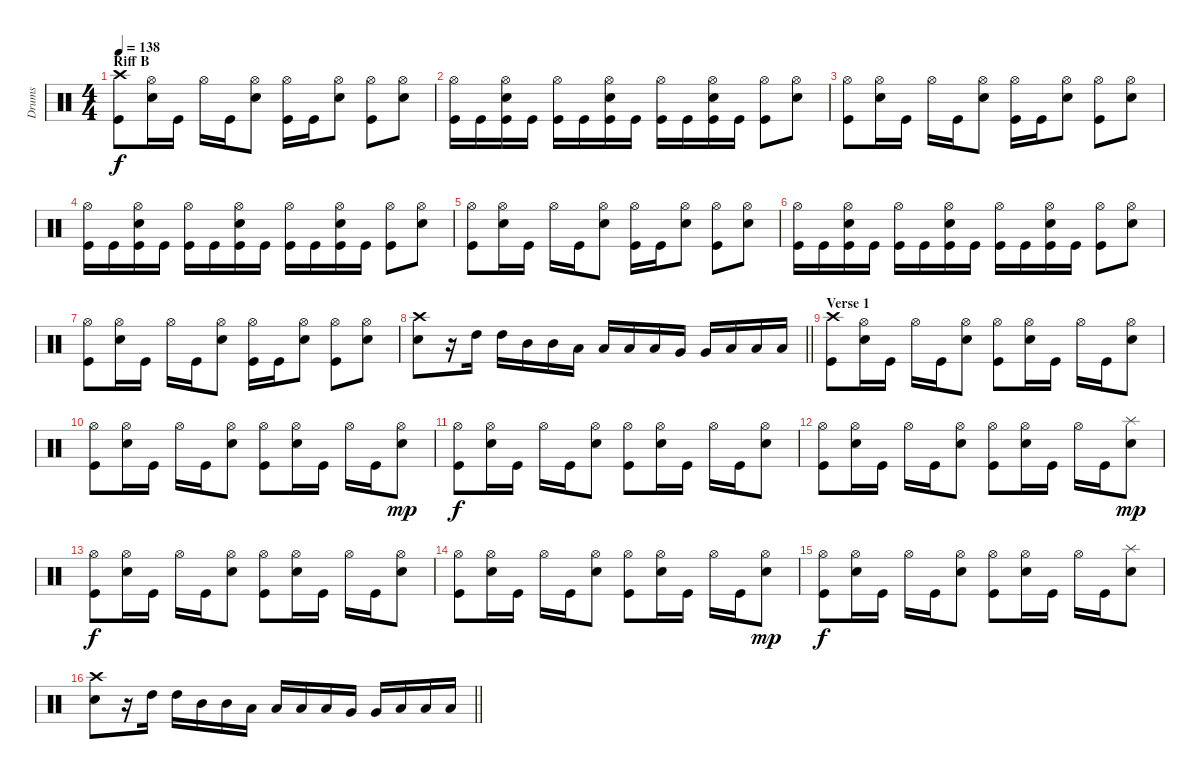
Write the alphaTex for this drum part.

\track ("Drums" "Drums") {instrument percussion}
\staff {score}
\articulation defaults
\ts (4 4)
\section ("" "Riff B")
\tempo 138
\clef neutral
\ks c
("Crash high (hit)" "Kick (hit)").8{dy f} ("Hi-Hat (open)" "Electric Snare (hit)").16 "Kick (hit)".16 "Hi-Hat (open)".16 "Kick (hit)".16 ("Hi-Hat (open)" "Electric Snare (hit)").8 ("Hi-Hat (open)" "Kick (hit)").16 "Kick (hit)".16 ("Hi-Hat (open)" "Electric Snare (hit)").8 ("Hi-Hat (open)" "Kick (hit)").8 ("Hi-Hat (open)" "Electric Snare (hit)").8 |
("Hi-Hat (open)" "Kick (hit)").16 "Kick (hit)".16 ("Hi-Hat (open)" "Electric Snare (hit)" "Kick (hit)").16 "Kick (hit)".16 ("Hi-Hat (open)" "Kick (hit)").16 "Kick (hit)".16 ("Hi-Hat (open)" "Electric Snare (hit)" "Kick (hit)").16 "Kick (hit)".16 ("Hi-Hat (open)" "Kick (hit)").16 "Kick (hit)".16 ("Hi-Hat (open)" "Electric Snare (hit)" "Kick (hit)").16 "Kick (hit)".16 ("Hi-Hat (open)" "Kick (hit)").8 ("Hi-Hat (open)" "Electric Snare (hit)").8 |
("Hi-Hat (open)" "Kick (hit)").8 ("Hi-Hat (open)" "Electric Snare (hit)").16 "Kick (hit)".16 "Hi-Hat (open)".16 "Kick (hit)".16 ("Hi-Hat (open)" "Electric Snare (hit)").8 ("Hi-Hat (open)" "Kick (hit)").16 "Kick (hit)".16 ("Hi-Hat (open)" "Electric Snare (hit)").8 ("Hi-Hat (open)" "Kick (hit)").8 ("Hi-Hat (open)" "Electric Snare (hit)").8 |
("Hi-Hat (open)" "Kick (hit)").16 "Kick (hit)".16 ("Hi-Hat (open)" "Electric Snare (hit)" "Kick (hit)").16 "Kick (hit)".16 ("Hi-Hat (open)" "Kick (hit)").16 "Kick (hit)".16 ("Hi-Hat (open)" "Electric Snare (hit)" "Kick (hit)").16 "Kick (hit)".16 ("Hi-Hat (open)" "Kick (hit)").16 "Kick (hit)".16 ("Hi-Hat (open)" "Electric Snare (hit)" "Kick (hit)").16 "Kick (hit)".16 ("Hi-Hat (open)" "Kick (hit)").8 ("Hi-Hat (open)" "Electric Snare (hit)").8 |
("Hi-Hat (open)" "Kick (hit)").8 ("Hi-Hat (open)" "Electric Snare (hit)").16 "Kick (hit)".16 "Hi-Hat (open)".16 "Kick (hit)".16 ("Hi-Hat (open)" "Electric Snare (hit)").8 ("Hi-Hat (open)" "Kick (hit)").16 "Kick (hit)".16 ("Hi-Hat (open)" "Electric Snare (hit)").8 ("Hi-Hat (open)" "Kick (hit)").8 ("Hi-Hat (open)" "Electric Snare (hit)").8 |
("Hi-Hat (open)" "Kick (hit)").16 "Kick (hit)".16 ("Hi-Hat (open)" "Electric Snare (hit)" "Kick (hit)").16 "Kick (hit)".16 ("Hi-Hat (open)" "Kick (hit)").16 "Kick (hit)".16 ("Hi-Hat (open)" "Electric Snare (hit)" "Kick (hit)").16 "Kick (hit)".16 ("Hi-Hat (open)" "Kick (hit)").16 "Kick (hit)".16 ("Hi-Hat (open)" "Electric Snare (hit)" "Kick (hit)").16 "Kick (hit)".16 ("Hi-Hat (open)" "Kick (hit)").8 ("Hi-Hat (open)" "Electric Snare (hit)").8 |
("Hi-Hat (open)" "Kick (hit)").8 ("Hi-Hat (open)" "Electric Snare (hit)").16 "Kick (hit)".16 "Hi-Hat (open)".16 "Kick (hit)".16 ("Hi-Hat (open)" "Electric Snare (hit)").8 ("Hi-Hat (open)" "Kick (hit)").16 "Kick (hit)".16 ("Hi-Hat (open)" "Electric Snare (hit)").8 ("Hi-Hat (open)" "Kick (hit)").8 ("Hi-Hat (open)" "Electric Snare (hit)").8 |
\barLineRight lightlight
("Crash high (hit)" "Electric Snare (hit)").8 r.16 "High Tom (hit)".16 "High Tom (hit)".16 "Mid Tom (hit)".16 "Mid Tom (hit)".16 "Low Tom (hit)".16 "Low Tom (hit)".16 "Low Tom (hit)".16 "Low Tom (hit)".16 "Very Low Tom (hit)".16 "Very Low Tom (hit)".16 "Low Floor Tom (hit)".16 "Low Floor Tom (hit)".16 "Low Floor Tom (hit)".16 |
\section ("" "Verse 1")
("Crash high (hit)" "Kick (hit)").8 ("Hi-Hat (open)" "Electric Snare (hit)").16 "Kick (hit)".16 "Hi-Hat (open)".16 "Kick (hit)".16 ("Hi-Hat (open)" "Electric Snare (hit)").8 ("Hi-Hat (open)" "Kick (hit)").8 ("Hi-Hat (open)" "Electric Snare (hit)").16 "Kick (hit)".16 "Hi-Hat (open)".16 "Kick (hit)".16 ("Hi-Hat (open)" "Electric Snare (hit)").8 |
("Hi-Hat (open)" "Kick (hit)").8 ("Hi-Hat (open)" "Electric Snare (hit)").16 "Kick (hit)".16 "Hi-Hat (open)".16 "Kick (hit)".16 ("Hi-Hat (open)" "Electric Snare (hit)").8 ("Hi-Hat (open)" "Kick (hit)").8 ("Hi-Hat (open)" "Electric Snare (hit)").16 "Kick (hit)".16 "Hi-Hat (open)".16 "Kick (hit)".16 ("Hi-Hat (open)" "Electric Snare (hit)").8{dy mp} |
("Hi-Hat (open)" "Kick (hit)").8{dy f} ("Hi-Hat (open)" "Electric Snare (hit)").16 "Kick (hit)".16 "Hi-Hat (open)".16 "Kick (hit)".16 ("Hi-Hat (open)" "Electric Snare (hit)").8 ("Hi-Hat (open)" "Kick (hit)").8 ("Hi-Hat (open)" "Electric Snare (hit)").16 "Kick (hit)".16 "Hi-Hat (open)".16 "Kick (hit)".16 ("Hi-Hat (open)" "Electric Snare (hit)").8 |
("Hi-Hat (open)" "Kick (hit)").8 ("Hi-Hat (open)" "Electric Snare (hit)").16 "Kick (hit)".16 "Hi-Hat (open)".16 "Kick (hit)".16 ("Hi-Hat (open)" "Electric Snare (hit)").8 ("Hi-Hat (open)" "Kick (hit)").8 ("Hi-Hat (open)" "Electric Snare (hit)").16 "Kick (hit)".16 "Hi-Hat (open)".16 "Kick (hit)".16 ("Splash (hit)" "Electric Snare (hit)").8{dy mp} |
("Hi-Hat (open)" "Kick (hit)").8{dy f} ("Hi-Hat (open)" "Electric Snare (hit)").16 "Kick (hit)".16 "Hi-Hat (open)".16 "Kick (hit)".16 ("Hi-Hat (open)" "Electric Snare (hit)").8 ("Hi-Hat (open)" "Kick (hit)").8 ("Hi-Hat (open)" "Electric Snare (hit)").16 "Kick (hit)".16 "Hi-Hat (open)".16 "Kick (hit)".16 ("Hi-Hat (open)" "Electric Snare (hit)").8 |
("Hi-Hat (open)" "Kick (hit)").8 ("Hi-Hat (open)" "Electric Snare (hit)").16 "Kick (hit)".16 "Hi-Hat (open)".16 "Kick (hit)".16 ("Hi-Hat (open)" "Electric Snare (hit)").8 ("Hi-Hat (open)" "Kick (hit)").8 ("Hi-Hat (open)" "Electric Snare (hit)").16 "Kick (hit)".16 "Hi-Hat (open)".16 "Kick (hit)".16 ("Hi-Hat (open)" "Electric Snare (hit)").8{dy mp} |
("Hi-Hat (open)" "Kick (hit)").8{dy f} ("Hi-Hat (open)" "Electric Snare (hit)").16 "Kick (hit)".16 "Hi-Hat (open)".16 "Kick (hit)".16 ("Hi-Hat (open)" "Electric Snare (hit)").8 ("Hi-Hat (open)" "Kick (hit)").8 ("Hi-Hat (open)" "Electric Snare (hit)").16 "Kick (hit)".16 "Hi-Hat (open)".16 "Kick (hit)".16 ("Splash (hit)" "Electric Snare (hit)").8 |
\barLineRight lightlight
("Crash high (hit)" "Electric Snare (hit)").8 r.16 "High Tom (hit)".16 "High Tom (hit)".16 "Mid Tom (hit)".16 "Mid Tom (hit)".16 "Low Tom (hit)".16 "Low Tom (hit)".16 "Low Tom (hit)".16 "Low Tom (hit)".16 "Very Low Tom (hit)".16 "Very Low Tom (hit)".16 "Low Floor Tom (hit)".16 "Low Floor Tom (hit)".16 "Low Floor Tom (hit)".16
